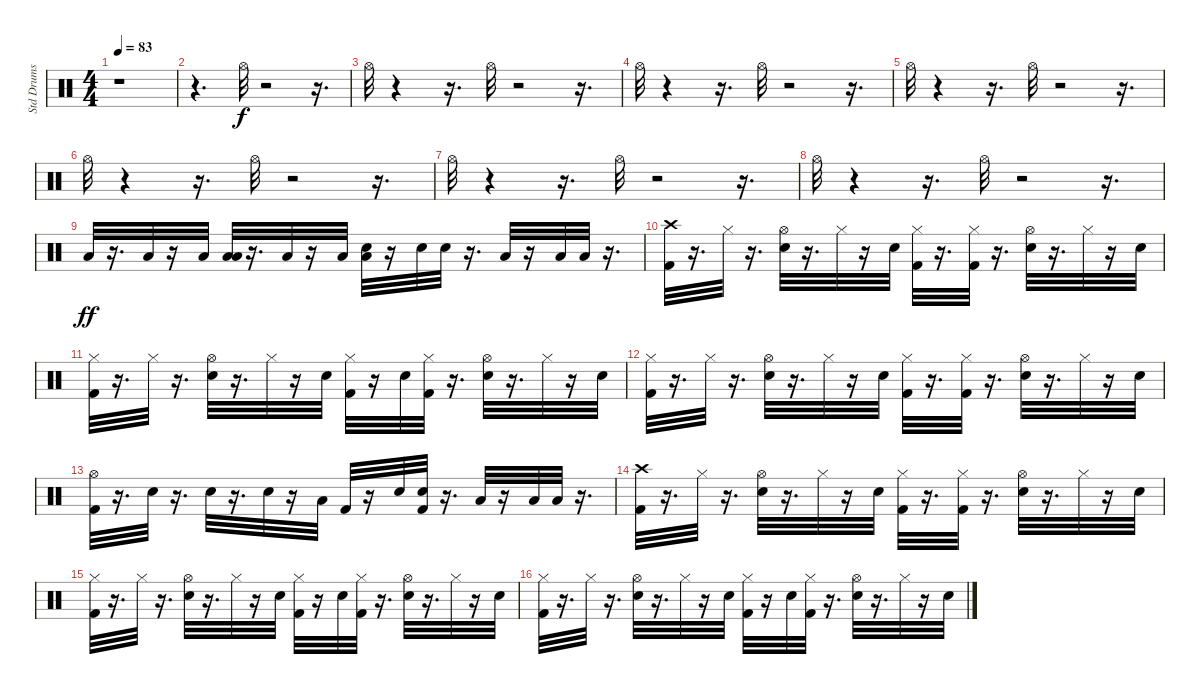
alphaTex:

\track ("Std Drums" "Std Drums") {instrument percussion}
\staff {score}
\articulation defaults
\ts (4 4)
\tempo 83
\clef neutral
\ks c
r.1{dy f} |
r.4{d} "Hi-Hat (open)".32 r.2 r.16{d} |
"Hi-Hat (open)".32 r.4 r.16{d} "Hi-Hat (open)".32 r.2 r.16{d} |
"Hi-Hat (open)".32 r.4 r.16{d} "Hi-Hat (open)".32 r.2 r.16{d} |
"Hi-Hat (open)".32 r.4 r.16{d} "Hi-Hat (open)".32 r.2 r.16{d} |
"Hi-Hat (open)".32 r.4 r.16{d} "Hi-Hat (open)".32 r.2 r.16{d} |
"Hi-Hat (open)".32 r.4 r.16{d} "Hi-Hat (open)".32 r.2 r.16{d} |
"Hi-Hat (open)".32 r.4 r.16{d} "Hi-Hat (open)".32 r.2 r.16{d} |
"Low Tom (hit)".32{dy ff} r.16{d} "Low Tom (hit)".32 r.16 "Low Tom (hit)".32 ("Low Tom (hit)" "Low Floor Tom (hit)").32 r.16{d} "Low Tom (hit)".32 r.16 "Low Tom (hit)".32 ("Low Floor Tom (hit)" "Snare (hit) 2").32 r.16 "Snare (hit) 2".32 "Snare (hit) 2".32 r.16{d} "Low Floor Tom (hit)".32 r.16 "Low Floor Tom (hit)".32 "Low Floor Tom (hit)".32 r.16{d} |
("Kick (hit) 2" "Crash high (hit)").32 r.16{d} "Hi-Hat (closed)".32 r.16{d} ("Snare (hit) 2" "Hi-Hat (open)").32 r.16{d} "Hi-Hat (closed)".32 r.16 "Snare (hit) 2".32 ("Hi-Hat (closed)" "Kick (hit) 2").32 r.16{d} ("Hi-Hat (closed)" "Kick (hit) 2").32 r.16{d} ("Hi-Hat (open)" "Snare (hit) 2").32 r.16{d} "Hi-Hat (closed)".32 r.16 "Snare (hit) 2".32 |
("Hi-Hat (closed)" "Kick (hit) 2").32 r.16{d} "Hi-Hat (closed)".32 r.16{d} ("Snare (hit) 2" "Hi-Hat (open)").32 r.16{d} "Hi-Hat (closed)".32 r.16 "Snare (hit) 2".32 ("Hi-Hat (closed)" "Kick (hit) 2").32 r.16 "Snare (hit) 2".32 ("Hi-Hat (closed)" "Kick (hit) 2").32 r.16{d} ("Hi-Hat (open)" "Snare (hit) 2").32 r.16{d} "Hi-Hat (closed)".32 r.16 "Snare (hit) 2".32 |
("Hi-Hat (closed)" "Kick (hit) 2").32 r.16{d} "Hi-Hat (closed)".32 r.16{d} ("Hi-Hat (open)" "Snare (hit) 2").32 r.16{d} "Hi-Hat (closed)".32 r.16 "Snare (hit) 2".32 ("Hi-Hat (closed)" "Kick (hit) 2").32 r.16{d} ("Kick (hit) 2" "Hi-Hat (closed)").32 r.16{d} ("Hi-Hat (open)" "Snare (hit) 2").32 r.16{d} "Hi-Hat (closed)".32 r.16 "Snare (hit) 2".32 |
("Kick (hit) 2" "Hi-Hat (open)").32 r.16{d} "Snare (hit) 2".32 r.16{d} "Snare (hit) 2".32 r.16{d} "Snare (hit) 2".32 r.16 "Low Tom (hit)".32 "Kick (hit) 2".32 r.16 "Snare (hit) 2".32 ("Kick (hit) 2" "Snare (hit) 2").32 r.16{d} "Low Tom (hit)".32 r.16 "Low Tom (hit)".32 "Low Tom (hit)".32 r.16{d} |
("Kick (hit) 2" "Crash high (hit)").32 r.16{d} "Hi-Hat (closed)".32 r.16{d} ("Hi-Hat (open)" "Snare (hit) 2").32 r.16{d} "Hi-Hat (closed)".32 r.16 "Snare (hit) 2".32 ("Hi-Hat (closed)" "Kick (hit) 2").32 r.16{d} ("Kick (hit) 2" "Hi-Hat (closed)").32 r.16{d} ("Hi-Hat (open)" "Snare (hit) 2").32 r.16{d} "Hi-Hat (closed)".32 r.16 "Snare (hit) 2".32 |
("Hi-Hat (closed)" "Kick (hit) 2").32 r.16{d} "Hi-Hat (closed)".32 r.16{d} ("Snare (hit) 2" "Hi-Hat (open)").32 r.16{d} "Hi-Hat (closed)".32 r.16 "Snare (hit) 2".32 ("Hi-Hat (closed)" "Kick (hit) 2").32 r.16 "Snare (hit) 2".32 ("Hi-Hat (closed)" "Kick (hit) 2").32 r.16{d} ("Hi-Hat (open)" "Snare (hit) 2").32 r.16{d} "Hi-Hat (closed)".32 r.16 "Snare (hit) 2".32 |
("Hi-Hat (closed)" "Kick (hit) 2").32 r.16{d} "Hi-Hat (closed)".32 r.16{d} ("Hi-Hat (open)" "Snare (hit) 2").32 r.16{d} "Hi-Hat (closed)".32 r.16 "Snare (hit) 2".32 ("Hi-Hat (closed)" "Kick (hit) 2").32 r.16 "Snare (hit) 2".32 ("Kick (hit) 2" "Hi-Hat (closed)").32 r.16{d} ("Snare (hit) 2" "Hi-Hat (open)").32 r.16{d} "Hi-Hat (closed)".32 r.16 "Snare (hit) 2".32
